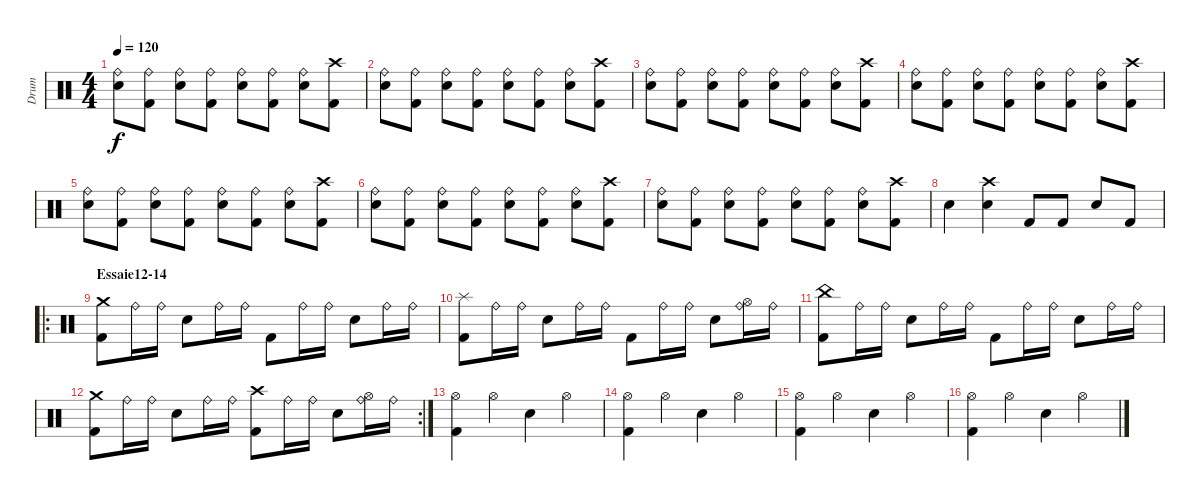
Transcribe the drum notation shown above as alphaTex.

\track ("Drum" "Drum") {instrument percussion}
\staff {score}
\articulation defaults
\ts (4 4)
\tempo 120
\clef neutral
\ks c
("Ride (bell)" "Snare (hit) 2").8{dy f} ("Ride (bell)" "Kick (hit) 2").8 ("Ride (bell)" "Snare (hit) 2").8 ("Ride (bell)" "Kick (hit) 2").8 ("Ride (bell)" "Snare (hit) 2").8 ("Ride (bell)" "Kick (hit) 2").8 ("Ride (bell)" "Snare (hit) 2").8 ("Crash high (hit)" "Kick (hit) 2").8 |
("Ride (bell)" "Snare (hit) 2").8 ("Ride (bell)" "Kick (hit) 2").8 ("Ride (bell)" "Snare (hit) 2").8 ("Ride (bell)" "Kick (hit) 2").8 ("Ride (bell)" "Snare (hit) 2").8 ("Ride (bell)" "Kick (hit) 2").8 ("Ride (bell)" "Snare (hit) 2").8 ("Crash high (hit)" "Kick (hit) 2").8 |
("Ride (bell)" "Snare (hit) 2").8 ("Ride (bell)" "Kick (hit) 2").8 ("Ride (bell)" "Snare (hit) 2").8 ("Ride (bell)" "Kick (hit) 2").8 ("Ride (bell)" "Snare (hit) 2").8 ("Ride (bell)" "Kick (hit) 2").8 ("Ride (bell)" "Snare (hit) 2").8 ("Crash high (hit)" "Kick (hit) 2").8 |
("Ride (bell)" "Snare (hit) 2").8 ("Ride (bell)" "Kick (hit) 2").8 ("Ride (bell)" "Snare (hit) 2").8 ("Ride (bell)" "Kick (hit) 2").8 ("Ride (bell)" "Snare (hit) 2").8 ("Ride (bell)" "Kick (hit) 2").8 ("Ride (bell)" "Snare (hit) 2").8 ("Crash high (hit)" "Kick (hit) 2").8 |
("Ride (bell)" "Snare (hit) 2").8 ("Ride (bell)" "Kick (hit) 2").8 ("Ride (bell)" "Snare (hit) 2").8 ("Ride (bell)" "Kick (hit) 2").8 ("Ride (bell)" "Snare (hit) 2").8 ("Ride (bell)" "Kick (hit) 2").8 ("Ride (bell)" "Snare (hit) 2").8 ("Crash high (hit)" "Kick (hit) 2").8 |
("Ride (bell)" "Snare (hit) 2").8 ("Ride (bell)" "Kick (hit) 2").8 ("Ride (bell)" "Snare (hit) 2").8 ("Ride (bell)" "Kick (hit) 2").8 ("Ride (bell)" "Snare (hit) 2").8 ("Ride (bell)" "Kick (hit) 2").8 ("Ride (bell)" "Snare (hit) 2").8 ("Crash high (hit)" "Kick (hit) 2").8 |
("Ride (bell)" "Snare (hit) 2").8 ("Ride (bell)" "Kick (hit) 2").8 ("Ride (bell)" "Snare (hit) 2").8 ("Ride (bell)" "Kick (hit) 2").8 ("Ride (bell)" "Snare (hit) 2").8 ("Ride (bell)" "Kick (hit) 2").8 ("Ride (bell)" "Snare (hit) 2").8 ("Crash high (hit)" "Kick (hit) 2").8 |
"Snare (hit) 2".4 ("Crash high (hit)" "Snare (hit) 2").4 "Kick (hit) 2".8 "Kick (hit) 2".8 "Snare (hit) 2".8 "Kick (hit) 2".8 |
\ro
\section ("" "Essaie12-14")
("Crash medium (hit)" "Kick (hit) 2").8 "Ride (bell)".16 "Ride (bell)".16 "Snare (hit) 2".8 "Ride (bell)".16 "Ride (bell)".16 "Kick (hit) 2".8 "Ride (bell)".16 "Ride (bell)".16 "Snare (hit) 2".8 "Ride (bell)".16 "Ride (bell)".16 |
("Splash (hit)" "Kick (hit) 2").8 "Ride (bell)".16 "Ride (bell)".16 "Snare (hit) 2".8 "Ride (bell)".16 "Ride (bell)".16 "Kick (hit) 2".8 "Ride (bell)".16 "Ride (bell)".16 "Snare (hit) 2".8 ("Ride (bell)" "Hi-Hat (open)").16 "Ride (bell)".16 |
("China (hit)" "Kick (hit) 2").8 "Ride (bell)".16 "Ride (bell)".16 "Snare (hit) 2".8 "Ride (bell)".16 "Ride (bell)".16 "Kick (hit) 2".8 "Ride (bell)".16 "Ride (bell)".16 "Snare (hit) 2".8 "Ride (bell)".16 "Ride (bell)".16 |
\rc 2
("Crash medium (hit)" "Kick (hit) 2").8 "Ride (bell)".16 "Ride (bell)".16 "Snare (hit) 2".8 "Ride (bell)".16 "Ride (bell)".16 ("Crash high (hit)" "Kick (hit) 2").8 "Ride (bell)".16 "Ride (bell)".16 "Snare (hit) 2".8 ("Ride (bell)" "Hi-Hat (open)").16 "Ride (bell)".16 |
("Hi-Hat (open)" "Kick (hit) 2").4 "Hi-Hat (open)".4 "Snare (hit) 2".4 "Hi-Hat (open)".4 |
("Hi-Hat (open)" "Kick (hit) 2").4 "Hi-Hat (open)".4 "Snare (hit) 2".4 "Hi-Hat (open)".4 |
("Hi-Hat (open)" "Kick (hit) 2").4 "Hi-Hat (open)".4 "Snare (hit) 2".4 "Hi-Hat (open)".4 |
("Hi-Hat (open)" "Kick (hit) 2").4 "Hi-Hat (open)".4 "Snare (hit) 2".4 "Hi-Hat (open)".4
